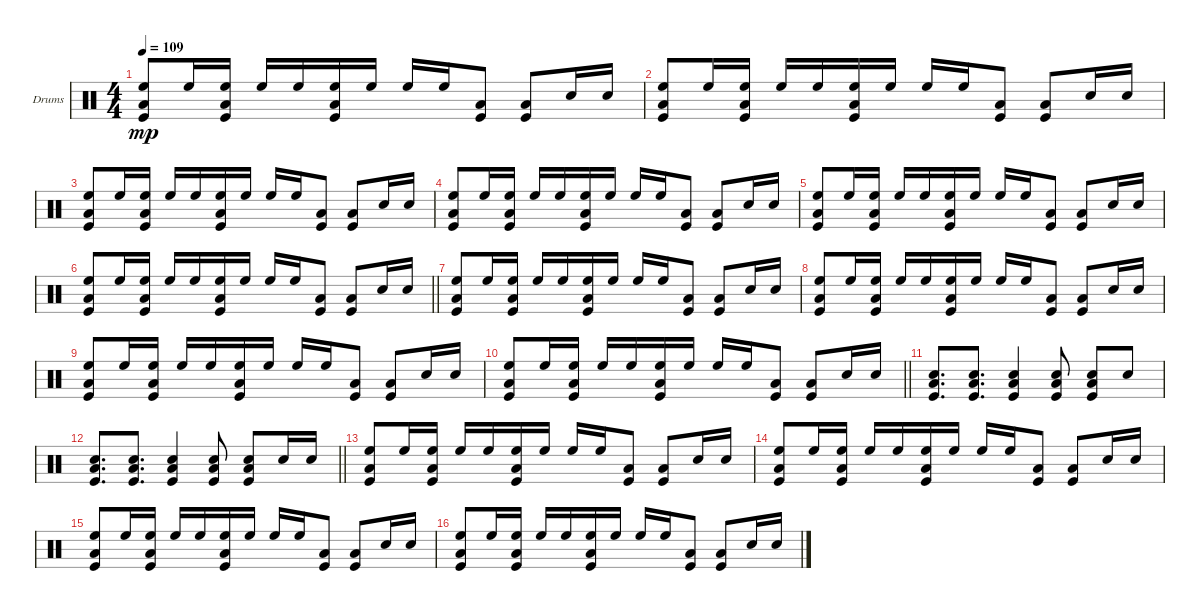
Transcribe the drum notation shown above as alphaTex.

\defaultSystemsLayout 4
\bracketExtendMode groupsimilarinstruments
\firstSystemTrackNameOrientation horizontal
\otherSystemsTrackNameOrientation horizontal
\track ("Drumkit" "Drums") {instrument percussion}
\staff {score}
\articulation defaults
\ts (4 4)
\tempo 109
\clef neutral
\scale
0.5
\ks c
("Kick (hit)" "Low Tom (hit)" "High Floor Tom (hit)").8{dy mp} "High Floor Tom (hit)".16 ("Kick (hit)" "Low Tom (hit)" "High Floor Tom (hit)").16 "High Floor Tom (hit)".16 "High Floor Tom (hit)".16 ("Kick (hit)" "Low Tom (hit)" "High Floor Tom (hit)").16 "High Floor Tom (hit)".16 "High Floor Tom (hit)".16 "High Floor Tom (hit)".16 ("Kick (hit)" "Low Tom (hit)").8 ("Kick (hit)" "Low Tom (hit)").8 "Snare (hit) 2".16 "Snare (hit) 2".16 |
\scale
0.5 ("Kick (hit)" "Low Tom (hit)" "High Floor Tom (hit)").8 "High Floor Tom (hit)".16 ("Kick (hit)" "Low Tom (hit)" "High Floor Tom (hit)").16 "High Floor Tom (hit)".16 "High Floor Tom (hit)".16 ("Kick (hit)" "Low Tom (hit)" "High Floor Tom (hit)").16 "High Floor Tom (hit)".16 "High Floor Tom (hit)".16 "High Floor Tom (hit)".16 ("Kick (hit)" "Low Tom (hit)").8 ("Kick (hit)" "Low Tom (hit)").8 "Snare (hit) 2".16 "Snare (hit) 2".16 |
\scale
0.5 ("Kick (hit)" "Low Tom (hit)" "High Floor Tom (hit)").8 "High Floor Tom (hit)".16 ("Kick (hit)" "Low Tom (hit)" "High Floor Tom (hit)").16 "High Floor Tom (hit)".16 "High Floor Tom (hit)".16 ("Kick (hit)" "Low Tom (hit)" "High Floor Tom (hit)").16 "High Floor Tom (hit)".16 "High Floor Tom (hit)".16 "High Floor Tom (hit)".16 ("Kick (hit)" "Low Tom (hit)").8 ("Kick (hit)" "Low Tom (hit)").8 "Snare (hit) 2".16 "Snare (hit) 2".16 |
\scale
0.5 ("Kick (hit)" "Low Tom (hit)" "High Floor Tom (hit)").8 "High Floor Tom (hit)".16 ("Kick (hit)" "Low Tom (hit)" "High Floor Tom (hit)").16 "High Floor Tom (hit)".16 "High Floor Tom (hit)".16 ("Kick (hit)" "Low Tom (hit)" "High Floor Tom (hit)").16 "High Floor Tom (hit)".16 "High Floor Tom (hit)".16 "High Floor Tom (hit)".16 ("Kick (hit)" "Low Tom (hit)").8 ("Kick (hit)" "Low Tom (hit)").8 "Snare (hit) 2".16 "Snare (hit) 2".16 |
\scale
0.5 ("Kick (hit)" "Low Tom (hit)" "High Floor Tom (hit)").8 "High Floor Tom (hit)".16 ("Kick (hit)" "Low Tom (hit)" "High Floor Tom (hit)").16 "High Floor Tom (hit)".16 "High Floor Tom (hit)".16 ("Kick (hit)" "Low Tom (hit)" "High Floor Tom (hit)").16 "High Floor Tom (hit)".16 "High Floor Tom (hit)".16 "High Floor Tom (hit)".16 ("Kick (hit)" "Low Tom (hit)").8 ("Kick (hit)" "Low Tom (hit)").8 "Snare (hit) 2".16 "Snare (hit) 2".16 |
\scale
0.5
\barLineRight lightlight
("Kick (hit)" "Low Tom (hit)" "High Floor Tom (hit)").8 "High Floor Tom (hit)".16 ("Kick (hit)" "Low Tom (hit)" "High Floor Tom (hit)").16 "High Floor Tom (hit)".16 "High Floor Tom (hit)".16 ("Kick (hit)" "Low Tom (hit)" "High Floor Tom (hit)").16 "High Floor Tom (hit)".16 "High Floor Tom (hit)".16 "High Floor Tom (hit)".16 ("Kick (hit)" "Low Tom (hit)").8 ("Kick (hit)" "Low Tom (hit)").8 "Snare (hit) 2".16 "Snare (hit) 2".16 |
\scale
0.5 ("Kick (hit)" "Low Tom (hit)" "High Floor Tom (hit)").8 "High Floor Tom (hit)".16 ("Kick (hit)" "Low Tom (hit)" "High Floor Tom (hit)").16 "High Floor Tom (hit)".16 "High Floor Tom (hit)".16 ("Kick (hit)" "Low Tom (hit)" "High Floor Tom (hit)").16 "High Floor Tom (hit)".16 "High Floor Tom (hit)".16 "High Floor Tom (hit)".16 ("Kick (hit)" "Low Tom (hit)").8 ("Kick (hit)" "Low Tom (hit)").8 "Snare (hit) 2".16 "Snare (hit) 2".16 |
\scale
0.5 ("Kick (hit)" "Low Tom (hit)" "High Floor Tom (hit)").8 "High Floor Tom (hit)".16 ("Kick (hit)" "Low Tom (hit)" "High Floor Tom (hit)").16 "High Floor Tom (hit)".16 "High Floor Tom (hit)".16 ("Kick (hit)" "Low Tom (hit)" "High Floor Tom (hit)").16 "High Floor Tom (hit)".16 "High Floor Tom (hit)".16 "High Floor Tom (hit)".16 ("Kick (hit)" "Low Tom (hit)").8 ("Kick (hit)" "Low Tom (hit)").8 "Snare (hit) 2".16 "Snare (hit) 2".16 |
\scale
0.5 ("Kick (hit)" "Low Tom (hit)" "High Floor Tom (hit)").8 "High Floor Tom (hit)".16 ("Kick (hit)" "Low Tom (hit)" "High Floor Tom (hit)").16 "High Floor Tom (hit)".16 "High Floor Tom (hit)".16 ("Kick (hit)" "Low Tom (hit)" "High Floor Tom (hit)").16 "High Floor Tom (hit)".16 "High Floor Tom (hit)".16 "High Floor Tom (hit)".16 ("Kick (hit)" "Low Tom (hit)").8 ("Kick (hit)" "Low Tom (hit)").8 "Snare (hit) 2".16 "Snare (hit) 2".16 |
\scale
0.5
\barLineRight lightlight
("Kick (hit)" "Low Tom (hit)" "High Floor Tom (hit)").8 "High Floor Tom (hit)".16 ("Kick (hit)" "Low Tom (hit)" "High Floor Tom (hit)").16 "High Floor Tom (hit)".16 "High Floor Tom (hit)".16 ("Kick (hit)" "Low Tom (hit)" "High Floor Tom (hit)").16 "High Floor Tom (hit)".16 "High Floor Tom (hit)".16 "High Floor Tom (hit)".16 ("Kick (hit)" "Low Tom (hit)").8 ("Kick (hit)" "Low Tom (hit)").8 "Snare (hit) 2".16 "Snare (hit) 2".16 |
\scale
0.459283 ("Kick (hit)" "Low Tom (hit)" "Snare (hit) 2").8{d} ("Kick (hit)" "Low Tom (hit)" "Snare (hit) 2").8{d} ("Kick (hit)" "Low Tom (hit)" "Snare (hit) 2").4 ("Kick (hit)" "Low Tom (hit)" "Snare (hit) 2").8 ("Kick (hit)" "Low Tom (hit)" "Snare (hit) 2").8 "Snare (hit) 2".8 |
\scale
0.540717
\barLineRight lightlight
("Kick (hit)" "Low Tom (hit)" "Snare (hit) 2").8{d} ("Kick (hit)" "Low Tom (hit)" "Snare (hit) 2").8{d} ("Kick (hit)" "Low Tom (hit)" "Snare (hit) 2").4 ("Kick (hit)" "Low Tom (hit)" "Snare (hit) 2").8 ("Kick (hit)" "Low Tom (hit)" "Snare (hit) 2").8 "Snare (hit) 2".16 "Snare (hit) 2".16 |
\scale
0.5 ("Kick (hit)" "Low Tom (hit)" "High Floor Tom (hit)").8 "High Floor Tom (hit)".16 ("Kick (hit)" "Low Tom (hit)" "High Floor Tom (hit)").16 "High Floor Tom (hit)".16 "High Floor Tom (hit)".16 ("Kick (hit)" "Low Tom (hit)" "High Floor Tom (hit)").16 "High Floor Tom (hit)".16 "High Floor Tom (hit)".16 "High Floor Tom (hit)".16 ("Kick (hit)" "Low Tom (hit)").8 ("Kick (hit)" "Low Tom (hit)").8 "Snare (hit) 2".16 "Snare (hit) 2".16 |
\scale
0.5 ("Kick (hit)" "Low Tom (hit)" "High Floor Tom (hit)").8 "High Floor Tom (hit)".16 ("Kick (hit)" "Low Tom (hit)" "High Floor Tom (hit)").16 "High Floor Tom (hit)".16 "High Floor Tom (hit)".16 ("Kick (hit)" "Low Tom (hit)" "High Floor Tom (hit)").16 "High Floor Tom (hit)".16 "High Floor Tom (hit)".16 "High Floor Tom (hit)".16 ("Kick (hit)" "Low Tom (hit)").8 ("Kick (hit)" "Low Tom (hit)").8 "Snare (hit) 2".16 "Snare (hit) 2".16 |
\scale
0.5 ("Kick (hit)" "Low Tom (hit)" "High Floor Tom (hit)").8 "High Floor Tom (hit)".16 ("Kick (hit)" "Low Tom (hit)" "High Floor Tom (hit)").16 "High Floor Tom (hit)".16 "High Floor Tom (hit)".16 ("Kick (hit)" "Low Tom (hit)" "High Floor Tom (hit)").16 "High Floor Tom (hit)".16 "High Floor Tom (hit)".16 "High Floor Tom (hit)".16 ("Kick (hit)" "Low Tom (hit)").8 ("Kick (hit)" "Low Tom (hit)").8 "Snare (hit) 2".16 "Snare (hit) 2".16 |
\scale
0.5 ("Kick (hit)" "Low Tom (hit)" "High Floor Tom (hit)").8 "High Floor Tom (hit)".16 ("Kick (hit)" "Low Tom (hit)" "High Floor Tom (hit)").16 "High Floor Tom (hit)".16 "High Floor Tom (hit)".16 ("Kick (hit)" "Low Tom (hit)" "High Floor Tom (hit)").16 "High Floor Tom (hit)".16 "High Floor Tom (hit)".16 "High Floor Tom (hit)".16 ("Kick (hit)" "Low Tom (hit)").8 ("Kick (hit)" "Low Tom (hit)").8 "Snare (hit) 2".16 "Snare (hit) 2".16
